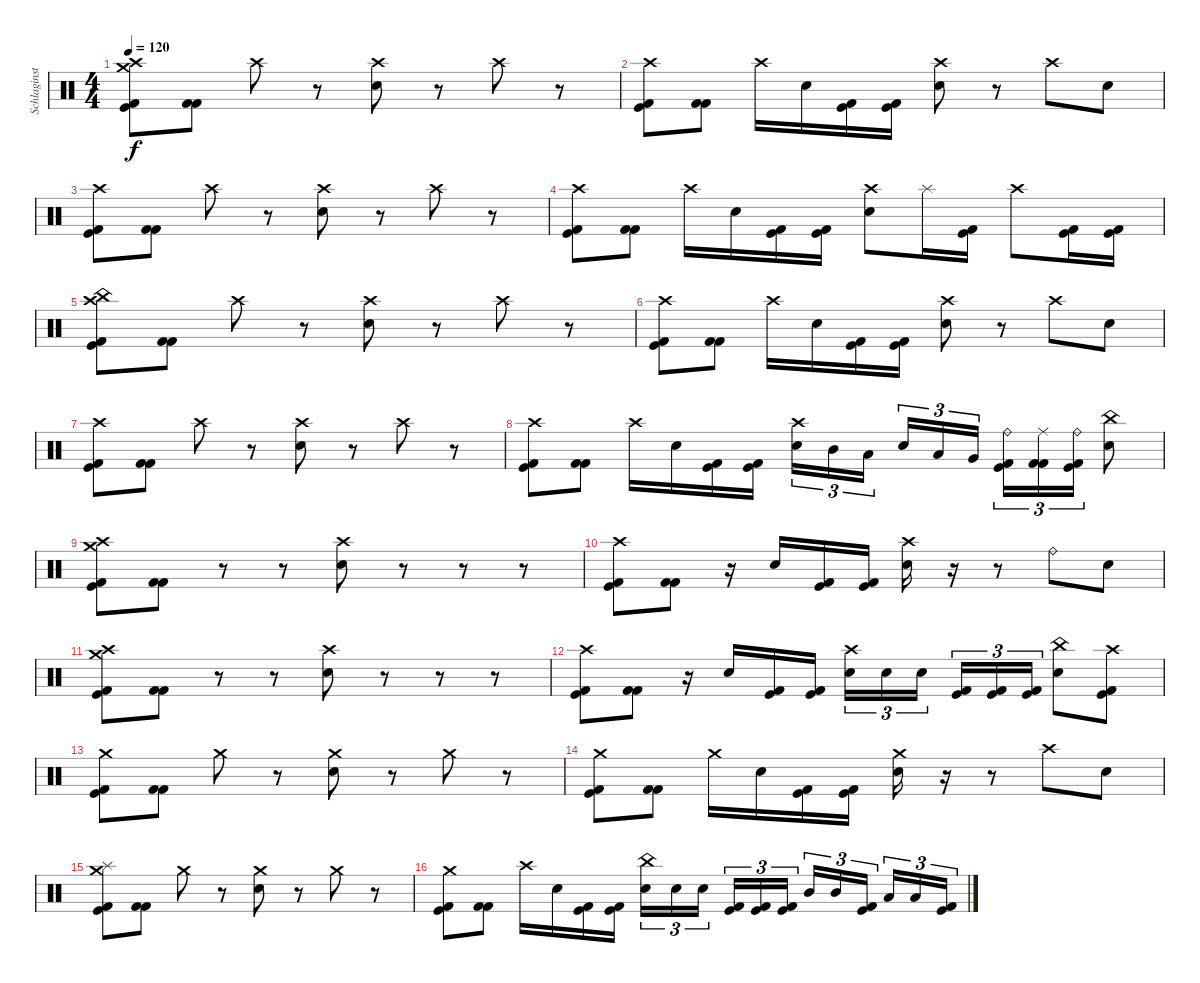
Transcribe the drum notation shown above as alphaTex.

\track ("Schlaginstrumente - Auswahl" "Schlaginst") {instrument percussion}
\staff {score}
\articulation defaults
\ts (4 4)
\tempo 120
\clef neutral
\ks c
("Crash medium (hit)" "Crash high (hit)" "Kick (hit)" "Kick (hit) 2").8{dy f} ("Kick (hit) 2" "Kick (hit) 2").8 "Crash high (hit)".8 r.8 ("Crash high (hit)" "Electric Snare (hit)").8 r.8 "Crash high (hit)".8 r.8 |
("Crash high (hit)" "Kick (hit)" "Kick (hit) 2").8 ("Kick (hit) 2" "Kick (hit) 2").8 "Crash high (hit)".16 "Electric Snare (hit)".16 ("Kick (hit)" "Kick (hit) 2").16 ("Kick (hit)" "Kick (hit) 2").16 ("Crash high (hit)" "Electric Snare (hit)").8 r.8 "Crash high (hit)".8 "Electric Snare (hit)".8 |
("Crash high (hit)" "Kick (hit)" "Kick (hit) 2").8 ("Kick (hit) 2" "Kick (hit) 2").8 "Crash high (hit)".8 r.8 ("Crash high (hit)" "Electric Snare (hit)").8 r.8 "Crash high (hit)".8 r.8 |
("Crash high (hit)" "Kick (hit)" "Kick (hit) 2").8 ("Kick (hit) 2" "Kick (hit) 2").8 "Crash high (hit)".16 "Electric Snare (hit)".16 ("Kick (hit)" "Kick (hit) 2").16 ("Kick (hit)" "Kick (hit) 2").16 ("Crash high (hit)" "Electric Snare (hit)").8 "Splash (hit)".16 ("Kick (hit)" "Kick (hit) 2").16 "Crash high (hit)".8 ("Kick (hit)" "Kick (hit) 2").16 ("Kick (hit)" "Kick (hit) 2").16 |
("China (hit)" "Crash high (hit)" "Kick (hit)" "Kick (hit) 2").8 ("Kick (hit) 2" "Kick (hit) 2").8 "Crash high (hit)".8 r.8 ("Crash high (hit)" "Electric Snare (hit)").8 r.8 "Crash high (hit)".8 r.8 |
("Crash high (hit)" "Kick (hit)" "Kick (hit) 2").8 ("Kick (hit) 2" "Kick (hit) 2").8 "Crash high (hit)".16 "Electric Snare (hit)".16 ("Kick (hit)" "Kick (hit) 2").16 ("Kick (hit)" "Kick (hit) 2").16 ("Crash high (hit)" "Electric Snare (hit)").8 r.8 "Crash high (hit)".8 "Electric Snare (hit)".8 |
("Crash high (hit)" "Kick (hit)" "Kick (hit) 2").8 ("Kick (hit) 2" "Kick (hit) 2").8 "Crash high (hit)".8 r.8 ("Crash high (hit)" "Electric Snare (hit)").8 r.8 "Crash high (hit)".8 r.8 |
("Crash high (hit)" "Kick (hit)" "Kick (hit) 2").8 ("Kick (hit) 2" "Kick (hit) 2").8 "Crash high (hit)".16 "Electric Snare (hit)".16 ("Kick (hit)" "Kick (hit) 2").16 ("Kick (hit)" "Kick (hit) 2").16 ("Crash high (hit)" "Electric Snare (hit)").16{tu (3 2)} "Mid Tom (hit)".16{tu (3 2)} "Low Tom (hit)".16{tu (3 2) beam splitsecondary} "Electric Snare (hit)".16{tu (3 2)} "Low Tom (hit)".16{tu (3 2)} "Very Low Tom (hit)".16{tu (3 2)} ("Ride (bell)" "Kick (hit)" "Kick (hit) 2").16{tu (3 2)} ("Ride (middle)" "Kick (hit) 2" "Kick (hit) 2").16{tu (3 2)} ("Ride (bell)" "Kick (hit)" "Kick (hit) 2").16{tu (3 2)} ("China (hit)" "Electric Snare (hit)").8 |
("Crash medium (hit)" "Crash high (hit)" "Kick (hit)" "Kick (hit) 2").8 ("Kick (hit) 2" "Kick (hit) 2").8 r.8 r.8 ("Crash high (hit)" "Electric Snare (hit)").8 r.8 r.8 r.8 |
("Crash high (hit)" "Kick (hit)" "Kick (hit) 2").8 ("Kick (hit) 2" "Kick (hit) 2").8 r.16 "Electric Snare (hit)".16 ("Kick (hit)" "Kick (hit) 2").16 ("Kick (hit)" "Kick (hit) 2").16 ("Crash high (hit)" "Electric Snare (hit)").16 r.16 r.8 "Ride (bell)".8 "Electric Snare (hit)".8 |
("Crash medium (hit)" "Crash high (hit)" "Kick (hit)" "Kick (hit) 2").8 ("Kick (hit) 2" "Kick (hit) 2").8 r.8 r.8 ("Crash high (hit)" "Electric Snare (hit)").8 r.8 r.8 r.8 |
("Crash high (hit)" "Kick (hit)" "Kick (hit) 2").8 ("Kick (hit) 2" "Kick (hit) 2").8 r.16 "Electric Snare (hit)".16 ("Kick (hit)" "Kick (hit) 2").16 ("Kick (hit)" "Kick (hit) 2").16 ("Crash high (hit)" "Electric Snare (hit)").16{tu (3 2)} "Electric Snare (hit)".16{tu (3 2)} "Electric Snare (hit)".16{tu (3 2) beam splitsecondary} ("Kick (hit)" "Kick (hit) 2").16{tu (3 2)} ("Kick (hit)" "Kick (hit) 2").16{tu (3 2)} ("Kick (hit)" "Kick (hit) 2").16{tu (3 2)} ("China (hit)" "Electric Snare (hit)").8 ("Crash high (hit)" "Kick (hit)" "Kick (hit) 2").8 |
("Crash medium (hit)" "Kick (hit)" "Kick (hit) 2").8 ("Kick (hit) 2" "Kick (hit) 2").8 "Crash medium (hit)".8 r.8 ("Crash medium (hit)" "Electric Snare (hit)").8 r.8 "Crash medium (hit)".8 r.8 |
("Crash medium (hit)" "Kick (hit)" "Kick (hit) 2").8 ("Kick (hit) 2" "Kick (hit) 2").8 "Crash medium (hit)".16 "Electric Snare (hit)".16 ("Kick (hit)" "Kick (hit) 2").16 ("Kick (hit)" "Kick (hit) 2").16 ("Crash medium (hit)" "Electric Snare (hit)").16 r.16 r.8 "Crash high (hit)".8 "Electric Snare (hit)".8 |
("Crash medium (hit)" "Splash (hit)" "Kick (hit)" "Kick (hit) 2").8 ("Kick (hit) 2" "Kick (hit) 2").8 "Crash medium (hit)".8 r.8 ("Crash medium (hit)" "Electric Snare (hit)").8 r.8 "Crash medium (hit)".8 r.8 |
("Crash medium (hit)" "Kick (hit)" "Kick (hit) 2").8 ("Kick (hit) 2" "Kick (hit) 2").8 "Crash high (hit)".16 "Electric Snare (hit)".16 ("Kick (hit)" "Kick (hit) 2").16 ("Kick (hit)" "Kick (hit) 2").16 ("China (hit)" "Electric Snare (hit)").16{tu (3 2)} "Electric Snare (hit)".16{tu (3 2)} "Electric Snare (hit)".16{tu (3 2) beam splitsecondary} ("Kick (hit)" "Kick (hit) 2").16{tu (3 2)} ("Kick (hit)" "Kick (hit) 2").16{tu (3 2)} ("Kick (hit)" "Kick (hit) 2").16{tu (3 2)} "Mid Tom (hit)".16{tu (3 2)} "Mid Tom (hit)".16{tu (3 2)} ("Kick (hit)" "Kick (hit) 2").16{tu (3 2) beam splitsecondary} "Low Tom (hit)".16{tu (3 2)} "Low Tom (hit)".16{tu (3 2)} ("Kick (hit)" "Kick (hit) 2").16{tu (3 2)}
